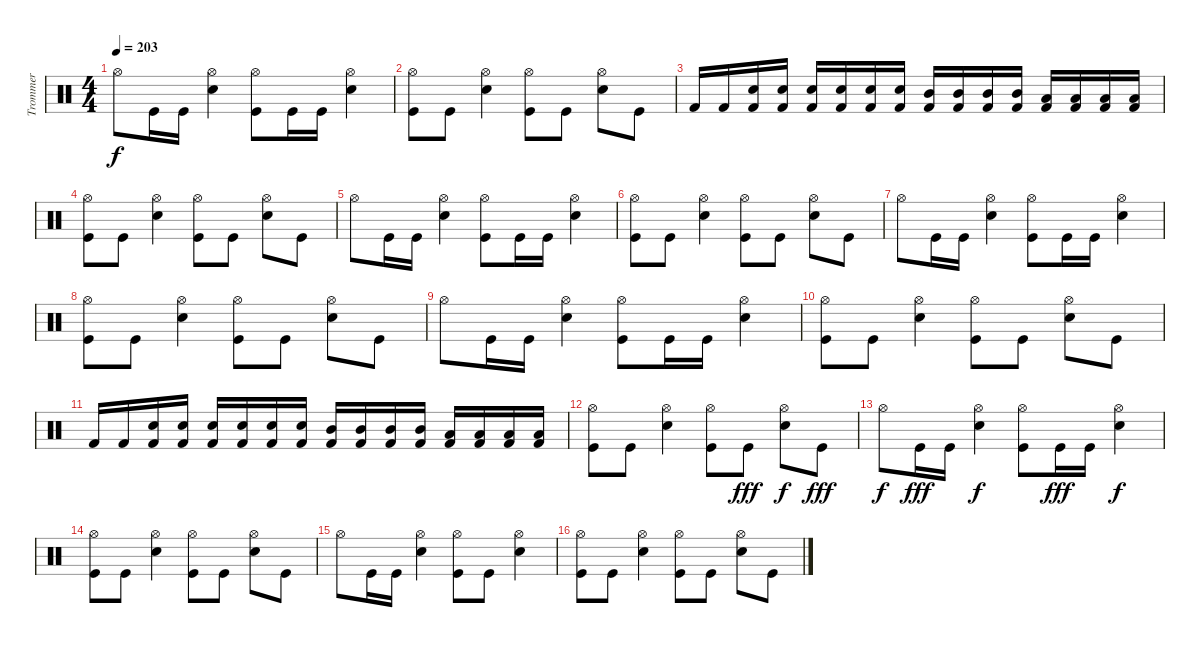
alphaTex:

\track ("Trommer" "Trommer") {instrument percussion}
\staff {score}
\articulation defaults
\ts (4 4)
\tempo 203
\clef neutral
\ks c "Hi-Hat (open)".8{dy f} "Kick (hit)".16 "Kick (hit)".16
("Hi-Hat (open)" "Snare (hit) 2").4 ("Kick (hit)" "Hi-Hat (open)").8 "Kick (hit)".16 "Kick (hit)".16 ("Snare (hit) 2" "Hi-Hat (open)").4 |
("Hi-Hat (open)" "Kick (hit)").8 "Kick (hit)".8 ("Hi-Hat (open)" "Snare (hit) 2").4 ("Hi-Hat (open)" "Kick (hit)").8 "Kick (hit)".8 ("Snare (hit) 2" "Hi-Hat (open)").8 "Kick (hit)".8 |
"Kick (hit) 2".16 "Kick (hit) 2".16 ("Snare (hit) 2" "Kick (hit) 2").16 ("Snare (hit) 2" "Kick (hit) 2").16 ("Snare (hit) 2" "Kick (hit) 2").16 ("Snare (hit) 2" "Kick (hit) 2").16 ("Snare (hit) 2" "Kick (hit) 2").16 ("Snare (hit) 2" "Kick (hit) 2").16 ("Mid Tom (hit)" "Kick (hit) 2").16 ("Mid Tom (hit)" "Kick (hit) 2").16 ("Mid Tom (hit)" "Kick (hit) 2").16 ("Mid Tom (hit)" "Kick (hit) 2").16 ("Low Tom (hit)" "Kick (hit) 2").16 ("Low Tom (hit)" "Kick (hit) 2").16 ("Low Tom (hit)" "Kick (hit) 2").16 ("Low Tom (hit)" "Kick (hit) 2").16 |
("Hi-Hat (open)" "Kick (hit)").8 "Kick (hit)".8 ("Hi-Hat (open)" "Snare (hit) 2").4 ("Hi-Hat (open)" "Kick (hit)").8 "Kick (hit)".8 ("Snare (hit) 2" "Hi-Hat (open)").8 "Kick (hit)".8 |
"Hi-Hat (open)".8 "Kick (hit)".16 "Kick (hit)".16 ("Hi-Hat (open)" "Snare (hit) 2").4 ("Kick (hit)" "Hi-Hat (open)").8 "Kick (hit)".16 "Kick (hit)".16 ("Snare (hit) 2" "Hi-Hat (open)").4 |
("Hi-Hat (open)" "Kick (hit)").8 "Kick (hit)".8 ("Hi-Hat (open)" "Snare (hit) 2").4 ("Hi-Hat (open)" "Kick (hit)").8 "Kick (hit)".8 ("Snare (hit) 2" "Hi-Hat (open)").8 "Kick (hit)".8 |
"Hi-Hat (open)".8 "Kick (hit)".16 "Kick (hit)".16 ("Hi-Hat (open)" "Snare (hit) 2").4 ("Kick (hit)" "Hi-Hat (open)").8 "Kick (hit)".16 "Kick (hit)".16 ("Snare (hit) 2" "Hi-Hat (open)").4 |
("Hi-Hat (open)" "Kick (hit)").8 "Kick (hit)".8 ("Hi-Hat (open)" "Snare (hit) 2").4 ("Hi-Hat (open)" "Kick (hit)").8 "Kick (hit)".8 ("Snare (hit) 2" "Hi-Hat (open)").8 "Kick (hit)".8 |
"Hi-Hat (open)".8 "Kick (hit)".16 "Kick (hit)".16 ("Hi-Hat (open)" "Snare (hit) 2").4 ("Kick (hit)" "Hi-Hat (open)").8 "Kick (hit)".16 "Kick (hit)".16 ("Snare (hit) 2" "Hi-Hat (open)").4 |
("Hi-Hat (open)" "Kick (hit)").8 "Kick (hit)".8 ("Hi-Hat (open)" "Snare (hit) 2").4 ("Hi-Hat (open)" "Kick (hit)").8 "Kick (hit)".8 ("Snare (hit) 2" "Hi-Hat (open)").8 "Kick (hit)".8 |
"Kick (hit) 2".16 "Kick (hit) 2".16 ("Snare (hit) 2" "Kick (hit) 2").16 ("Snare (hit) 2" "Kick (hit) 2").16 ("Snare (hit) 2" "Kick (hit) 2").16 ("Snare (hit) 2" "Kick (hit) 2").16 ("Snare (hit) 2" "Kick (hit) 2").16 ("Snare (hit) 2" "Kick (hit) 2").16 ("Mid Tom (hit)" "Kick (hit) 2").16 ("Mid Tom (hit)" "Kick (hit) 2").16 ("Mid Tom (hit)" "Kick (hit) 2").16 ("Mid Tom (hit)" "Kick (hit) 2").16 ("Low Tom (hit)" "Kick (hit) 2").16 ("Low Tom (hit)" "Kick (hit) 2").16 ("Low Tom (hit)" "Kick (hit) 2").16 ("Low Tom (hit)" "Kick (hit) 2").16 |
("Hi-Hat (open)" "Kick (hit)").8 "Kick (hit)".8 ("Hi-Hat (open)" "Snare (hit) 2").4 ("Hi-Hat (open)" "Kick (hit)").8 "Kick (hit)".8{dy fff} ("Snare (hit) 2" "Hi-Hat (open)").8{dy f} "Kick (hit)".8{dy fff} |
"Hi-Hat (open)".8{dy f} "Kick (hit)".16{dy fff} "Kick (hit)".16 ("Hi-Hat (open)" "Snare (hit) 2").4{dy f} ("Kick (hit)" "Hi-Hat (open)").8 "Kick (hit)".16{dy fff} "Kick (hit)".16 ("Snare (hit) 2" "Hi-Hat (open)").4{dy f} |
("Hi-Hat (open)" "Kick (hit)").8 "Kick (hit)".8 ("Hi-Hat (open)" "Snare (hit) 2").4 ("Hi-Hat (open)" "Kick (hit)").8 "Kick (hit)".8 ("Snare (hit) 2" "Hi-Hat (open)").8 "Kick (hit)".8 |
"Hi-Hat (open)".8 "Kick (hit)".16 "Kick (hit)".16 ("Snare (hit) 2" "Hi-Hat (open)").4 ("Kick (hit)" "Hi-Hat (open)").8 "Kick (hit)".8 ("Snare (hit) 2" "Hi-Hat (open)").4 |
("Hi-Hat (open)" "Kick (hit)").8 "Kick (hit)".8 ("Hi-Hat (open)" "Snare (hit) 2").4 ("Hi-Hat (open)" "Kick (hit)").8 "Kick (hit)".8 ("Snare (hit) 2" "Hi-Hat (open)").8 "Kick (hit)".8
